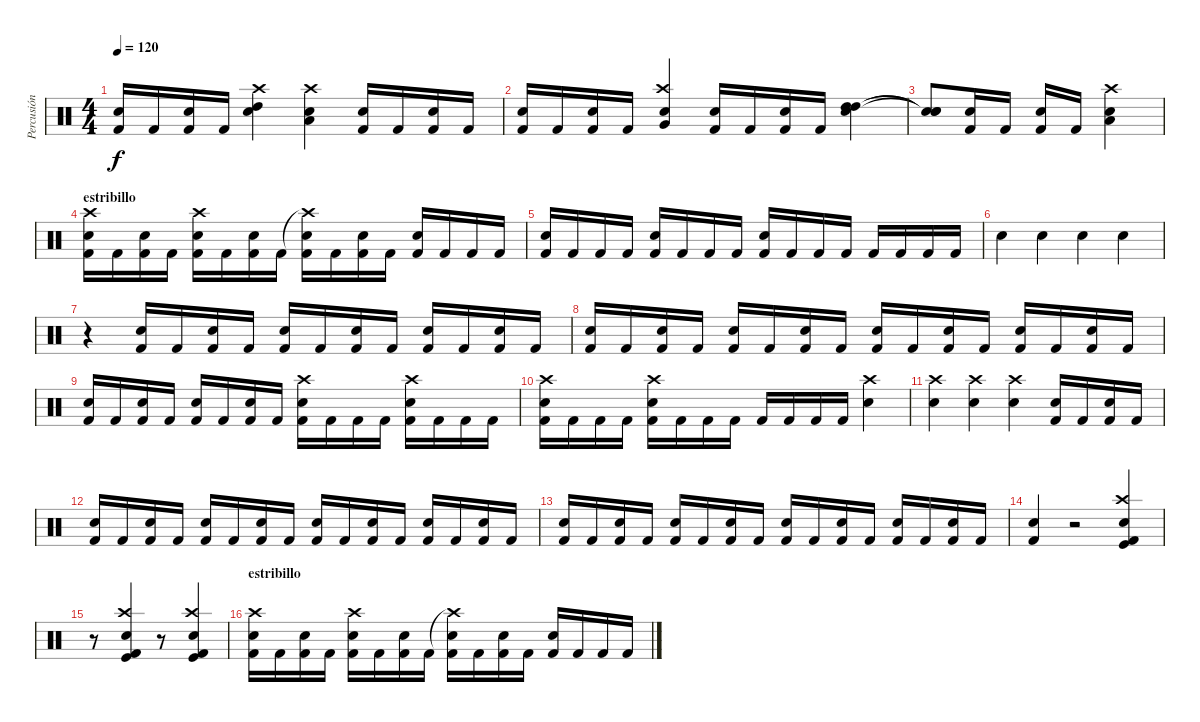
\track ("Percusión" "Percusión") {instrument percussion}
\staff {score}
\articulation defaults
\ts (4 4)
\tempo 120
\clef neutral
\ks c
("Kick (hit) 2" "Electric Snare (hit)").16{dy f} "Kick (hit) 2".16 ("Kick (hit) 2" "Electric Snare (hit)").16 "Kick (hit) 2".16 ("Crash high (hit)" "High Tom (hit)" "Electric Snare (hit)").4 ("Crash high (hit)" "Low Tom (hit)" "Electric Snare (hit)").4 ("Kick (hit) 2" "Electric Snare (hit)").16 "Kick (hit) 2".16 ("Kick (hit) 2" "Electric Snare (hit)").16 "Kick (hit) 2".16 |
("Kick (hit) 2" "Electric Snare (hit)").16 "Kick (hit) 2".16 ("Kick (hit) 2" "Electric Snare (hit)").16 "Kick (hit) 2".16 ("Crash high (hit)" "Very Low Tom (hit)" "Electric Snare (hit)").4 ("Kick (hit) 2" "Electric Snare (hit)").16 "Kick (hit) 2".16 ("Kick (hit) 2" "Electric Snare (hit)").16 "Kick (hit) 2".16 ("High Tom (hit)" "High Tom (hit)" "Electric Snare (hit)").4 |
("Snare (hit)"{t} "Snare (hit)"{t} "Snare (hit)"{t}).8 ("Kick (hit) 2" "Electric Snare (hit)").16 "Kick (hit) 2".16 ("Kick (hit) 2" "Electric Snare (hit)").16 "Kick (hit) 2".16 ("Crash high (hit)" "Low Tom (hit)" "Electric Snare (hit)").4 |
\section ("" "estribillo")
("Crash high (hit)" "Kick (hit) 2" "Electric Snare (hit)").16 "Kick (hit) 2".16 ("Kick (hit) 2" "Electric Snare (hit)").16 "Kick (hit) 2".16 ("Crash high (hit)" "Kick (hit) 2" "Electric Snare (hit)").16 "Kick (hit) 2".16 ("Kick (hit) 2" "Electric Snare (hit)").16 "Kick (hit) 2".16 ("Crash high (hit)"{t} "Kick (hit) 2" "Electric Snare (hit)").16 "Kick (hit) 2".16 ("Kick (hit) 2" "Electric Snare (hit)").16 "Kick (hit) 2".16 ("Kick (hit) 2" "Electric Snare (hit)").16 "Kick (hit) 2".16 "Kick (hit) 2".16 "Kick (hit) 2".16 |
("Kick (hit) 2" "Electric Snare (hit)").16 "Kick (hit) 2".16 "Kick (hit) 2".16 "Kick (hit) 2".16 ("Kick (hit) 2" "Electric Snare (hit)").16 "Kick (hit) 2".16 "Kick (hit) 2".16 "Kick (hit) 2".16 ("Kick (hit) 2" "Electric Snare (hit)").16 "Kick (hit) 2".16 "Kick (hit) 2".16 "Kick (hit) 2".16 "Kick (hit) 2".16 "Kick (hit) 2".16 "Kick (hit) 2".16 "Kick (hit) 2".16 |
"Electric Snare (hit)".4 "Electric Snare (hit)".4 "Electric Snare (hit)".4 "Electric Snare (hit)".4 |
r.4 ("Kick (hit) 2" "Electric Snare (hit)").16 "Kick (hit) 2".16 ("Kick (hit) 2" "Electric Snare (hit)").16 "Kick (hit) 2".16 ("Kick (hit) 2" "Electric Snare (hit)").16 "Kick (hit) 2".16 ("Kick (hit) 2" "Electric Snare (hit)").16 "Kick (hit) 2".16 ("Kick (hit) 2" "Electric Snare (hit)").16 "Kick (hit) 2".16 ("Kick (hit) 2" "Electric Snare (hit)").16 "Kick (hit) 2".16 |
("Kick (hit) 2" "Electric Snare (hit)").16 "Kick (hit) 2".16 ("Kick (hit) 2" "Electric Snare (hit)").16 "Kick (hit) 2".16 ("Kick (hit) 2" "Electric Snare (hit)").16 "Kick (hit) 2".16 ("Kick (hit) 2" "Electric Snare (hit)").16 "Kick (hit) 2".16 ("Kick (hit) 2" "Electric Snare (hit)").16 "Kick (hit) 2".16 ("Kick (hit) 2" "Electric Snare (hit)").16 "Kick (hit) 2".16 ("Kick (hit) 2" "Electric Snare (hit)").16 "Kick (hit) 2".16 ("Kick (hit) 2" "Electric Snare (hit)").16 "Kick (hit) 2".16 |
("Kick (hit) 2" "Electric Snare (hit)").16 "Kick (hit) 2".16 ("Kick (hit) 2" "Electric Snare (hit)").16 "Kick (hit) 2".16 ("Kick (hit) 2" "Electric Snare (hit)").16 "Kick (hit) 2".16 ("Kick (hit) 2" "Electric Snare (hit)").16 "Kick (hit) 2".16 ("Crash high (hit)" "Kick (hit) 2" "Electric Snare (hit)").16 "Kick (hit) 2".16 "Kick (hit) 2".16 "Kick (hit) 2".16 ("Crash high (hit)" "Kick (hit) 2" "Electric Snare (hit)").16 "Kick (hit) 2".16 "Kick (hit) 2".16 "Kick (hit) 2".16 |
("Crash high (hit)" "Kick (hit) 2" "Electric Snare (hit)").16 "Kick (hit) 2".16 "Kick (hit) 2".16 "Kick (hit) 2".16 ("Crash high (hit)" "Kick (hit) 2" "Electric Snare (hit)").16 "Kick (hit) 2".16 "Kick (hit) 2".16 "Kick (hit) 2".16 "Kick (hit) 2".16 "Kick (hit) 2".16 "Kick (hit) 2".16 "Kick (hit) 2".16 ("Crash high (hit)" "Electric Snare (hit)").4 |
("Crash high (hit)" "Electric Snare (hit)").4 ("Crash high (hit)" "Electric Snare (hit)").4 ("Crash high (hit)" "Electric Snare (hit)").4 ("Kick (hit) 2" "Electric Snare (hit)").16 "Kick (hit) 2".16 ("Kick (hit) 2" "Electric Snare (hit)").16 "Kick (hit) 2".16 |
("Kick (hit) 2" "Electric Snare (hit)").16 "Kick (hit) 2".16 ("Kick (hit) 2" "Electric Snare (hit)").16 "Kick (hit) 2".16 ("Kick (hit) 2" "Electric Snare (hit)").16 "Kick (hit) 2".16 ("Kick (hit) 2" "Electric Snare (hit)").16 "Kick (hit) 2".16 ("Kick (hit) 2" "Electric Snare (hit)").16 "Kick (hit) 2".16 ("Kick (hit) 2" "Electric Snare (hit)").16 "Kick (hit) 2".16 ("Kick (hit) 2" "Electric Snare (hit)").16 "Kick (hit) 2".16 ("Kick (hit) 2" "Electric Snare (hit)").16 "Kick (hit) 2".16 |
("Kick (hit) 2" "Electric Snare (hit)").16 "Kick (hit) 2".16 ("Kick (hit) 2" "Electric Snare (hit)").16 "Kick (hit) 2".16 ("Kick (hit) 2" "Electric Snare (hit)").16 "Kick (hit) 2".16 ("Kick (hit) 2" "Electric Snare (hit)").16 "Kick (hit) 2".16 ("Kick (hit) 2" "Electric Snare (hit)").16 "Kick (hit) 2".16 ("Kick (hit) 2" "Electric Snare (hit)").16 "Kick (hit) 2".16 ("Kick (hit) 2" "Electric Snare (hit)").16 "Kick (hit) 2".16 ("Kick (hit) 2" "Electric Snare (hit)").16 "Kick (hit) 2".16 |
("Kick (hit) 2" "Electric Snare (hit)").4 r.2 ("Crash high (hit)" "Kick (hit)" "Kick (hit) 2" "Electric Snare (hit)").4 |
r.8 ("Crash high (hit)" "Kick (hit)" "Kick (hit) 2" "Electric Snare (hit)").4 r.8 ("Crash high (hit)" "Kick (hit)" "Kick (hit) 2" "Electric Snare (hit)").4 |
\section ("" "estribillo")
("Crash high (hit)" "Kick (hit) 2" "Electric Snare (hit)").16 "Kick (hit) 2".16 ("Kick (hit) 2" "Electric Snare (hit)").16 "Kick (hit) 2".16 ("Crash high (hit)" "Kick (hit) 2" "Electric Snare (hit)").16 "Kick (hit) 2".16 ("Kick (hit) 2" "Electric Snare (hit)").16 "Kick (hit) 2".16 ("Crash high (hit)"{t} "Kick (hit) 2" "Electric Snare (hit)").16 "Kick (hit) 2".16 ("Kick (hit) 2" "Electric Snare (hit)").16 "Kick (hit) 2".16 ("Kick (hit) 2" "Electric Snare (hit)").16 "Kick (hit) 2".16 "Kick (hit) 2".16 "Kick (hit) 2".16
